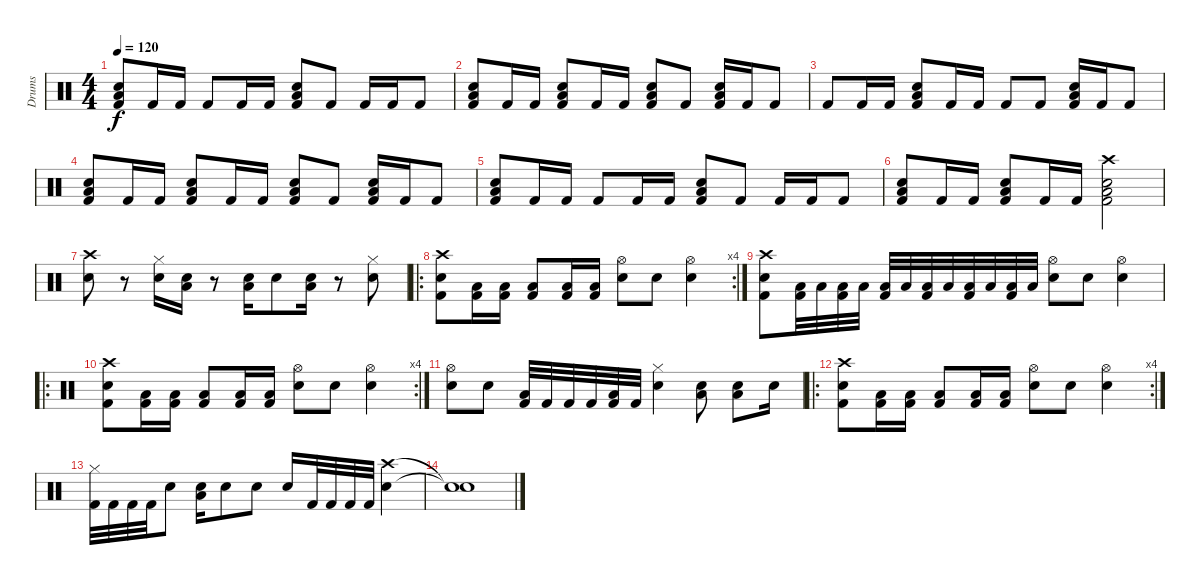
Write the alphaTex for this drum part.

\track ("Drums" "Drums") {instrument percussion}
\staff {score}
\articulation defaults
\ts (4 4)
\tempo 120
\clef neutral
\ks c
("Snare (hit) 2" "Low Tom (hit)" "Kick (hit) 2").8{dy f} "Kick (hit) 2".16 "Kick (hit) 2".16 "Kick (hit) 2".8 "Kick (hit) 2".16 "Kick (hit) 2".16 ("Snare (hit) 2" "Low Tom (hit)" "Kick (hit) 2").8 "Kick (hit) 2".8 "Kick (hit) 2".16 "Kick (hit) 2".16 "Kick (hit) 2".8 |
("Snare (hit) 2" "Low Tom (hit)" "Kick (hit) 2").8 "Kick (hit) 2".16 "Kick (hit) 2".16 ("Snare (hit) 2" "Low Tom (hit)" "Kick (hit) 2").8 "Kick (hit) 2".16 "Kick (hit) 2".16 ("Snare (hit) 2" "Low Tom (hit)" "Kick (hit) 2").8 "Kick (hit) 2".8 ("Snare (hit) 2" "Low Tom (hit)" "Kick (hit) 2").16 "Kick (hit) 2".16 "Kick (hit) 2".8 |
"Kick (hit) 2".8 "Kick (hit) 2".16 "Kick (hit) 2".16 ("Snare (hit) 2" "Low Tom (hit)" "Kick (hit) 2").8 "Kick (hit) 2".16 "Kick (hit) 2".16 "Kick (hit) 2".8 "Kick (hit) 2".8 ("Snare (hit) 2" "Low Tom (hit)" "Kick (hit) 2").16 "Kick (hit) 2".16 "Kick (hit) 2".8 |
("Snare (hit) 2" "Low Tom (hit)" "Kick (hit) 2").8 "Kick (hit) 2".16 "Kick (hit) 2".16 ("Snare (hit) 2" "Low Tom (hit)" "Kick (hit) 2").8 "Kick (hit) 2".16 "Kick (hit) 2".16 ("Snare (hit) 2" "Low Tom (hit)" "Kick (hit) 2").8 "Kick (hit) 2".8 ("Snare (hit) 2" "Low Tom (hit)" "Kick (hit) 2").16 "Kick (hit) 2".16 "Kick (hit) 2".8 |
("Snare (hit) 2" "Low Tom (hit)" "Kick (hit) 2").8 "Kick (hit) 2".16 "Kick (hit) 2".16 "Kick (hit) 2".8 "Kick (hit) 2".16 "Kick (hit) 2".16 ("Snare (hit) 2" "Low Tom (hit)" "Kick (hit) 2").8 "Kick (hit) 2".8 "Kick (hit) 2".16 "Kick (hit) 2".16 "Kick (hit) 2".8 |
("Snare (hit) 2" "Low Tom (hit)" "Kick (hit) 2").8 "Kick (hit) 2".16 "Kick (hit) 2".16 ("Snare (hit) 2" "Low Tom (hit)" "Kick (hit) 2").8 "Kick (hit) 2".16 "Kick (hit) 2".16 ("Snare (hit) 2" "Low Tom (hit)" "Kick (hit) 2" "Crash high (hit)").2 |
("Snare (hit) 2" "Crash high (hit)").8 r.8 ("Snare (hit) 2" "Hi-Hat (closed)").16 ("Snare (hit) 2" "Low Tom (hit)").16 r.8 ("Snare (hit) 2" "Low Tom (hit)").16 "Snare (hit) 2".8 ("Snare (hit) 2" "Low Tom (hit)").16 r.8 ("Snare (hit) 2" "Hi-Hat (closed)").8 |
\ro
\rc 4
("Crash high (hit)" "Snare (hit) 2" "Kick (hit) 2").8 ("Kick (hit) 2" "Low Tom (hit)").16 ("Kick (hit) 2" "Low Tom (hit)").16 ("Kick (hit) 2" "Low Tom (hit)").8 ("Kick (hit) 2" "Low Tom (hit)").16 ("Kick (hit) 2" "Low Tom (hit)").16 ("Snare (hit) 2" "Hi-Hat (open)").8 "Snare (hit) 2".8 ("Snare (hit) 2" "Hi-Hat (open)").4 |
("Crash high (hit)" "Snare (hit) 2" "Kick (hit) 2").8 ("Kick (hit) 2" "Low Tom (hit)").32 "Low Tom (hit)".32 ("Kick (hit) 2" "Low Tom (hit)").32 "Low Tom (hit)".32 ("Kick (hit) 2" "Low Tom (hit)").32 "Low Tom (hit)".32 ("Kick (hit) 2" "Low Tom (hit)").32 "Low Tom (hit)".32 ("Kick (hit) 2" "Low Tom (hit)").32 "Low Tom (hit)".32 ("Kick (hit) 2" "Low Tom (hit)").32 "Low Tom (hit)".32 ("Snare (hit) 2" "Hi-Hat (open)").8 "Snare (hit) 2".8 ("Snare (hit) 2" "Hi-Hat (open)").4 |
\ro
\rc 4
("Crash high (hit)" "Snare (hit) 2" "Kick (hit) 2").8 ("Kick (hit) 2" "Low Tom (hit)").16 ("Kick (hit) 2" "Low Tom (hit)").16 ("Kick (hit) 2" "Low Tom (hit)").8 ("Kick (hit) 2" "Low Tom (hit)").16 ("Kick (hit) 2" "Low Tom (hit)").16 ("Snare (hit) 2" "Hi-Hat (open)").8 "Snare (hit) 2".8 ("Snare (hit) 2" "Hi-Hat (open)").4 |
("Snare (hit) 2" "Hi-Hat (open)").8 "Snare (hit) 2".8 ("Kick (hit) 2" "Low Tom (hit)").32 "Kick (hit) 2".32 "Kick (hit) 2".32 "Kick (hit) 2".32 ("Kick (hit) 2" "Low Tom (hit)").32 "Kick (hit) 2".32 ("Snare (hit) 2" "Hi-Hat (closed)").4 ("Snare (hit) 2" "Low Tom (hit)").8 ("Snare (hit) 2" "Low Tom (hit)").8 "Snare (hit) 2".16 |
\ro
\rc 4
("Crash high (hit)" "Snare (hit) 2" "Kick (hit) 2").8 ("Kick (hit) 2" "Low Tom (hit)").16 ("Kick (hit) 2" "Low Tom (hit)").16 ("Kick (hit) 2" "Low Tom (hit)").8 ("Kick (hit) 2" "Low Tom (hit)").16 ("Kick (hit) 2" "Low Tom (hit)").16 ("Snare (hit) 2" "Hi-Hat (open)").8 "Snare (hit) 2".8 ("Snare (hit) 2" "Hi-Hat (open)").4 |
("Kick (hit) 2" "Hi-Hat (closed)").32 "Kick (hit) 2".32 "Kick (hit) 2".32 "Kick (hit) 2".32 "Snare (hit) 2".8 ("Snare (hit) 2" "Low Tom (hit)").16 "Snare (hit) 2".8 "Snare (hit) 2".8 "Snare (hit) 2".16 "Kick (hit) 2".32 "Kick (hit) 2".32 "Kick (hit) 2".32 "Kick (hit) 2".32 ("Snare (hit) 2" "Crash high (hit)").4 |
("Snare (hit)"{t} "Snare (hit)"{t}).1
